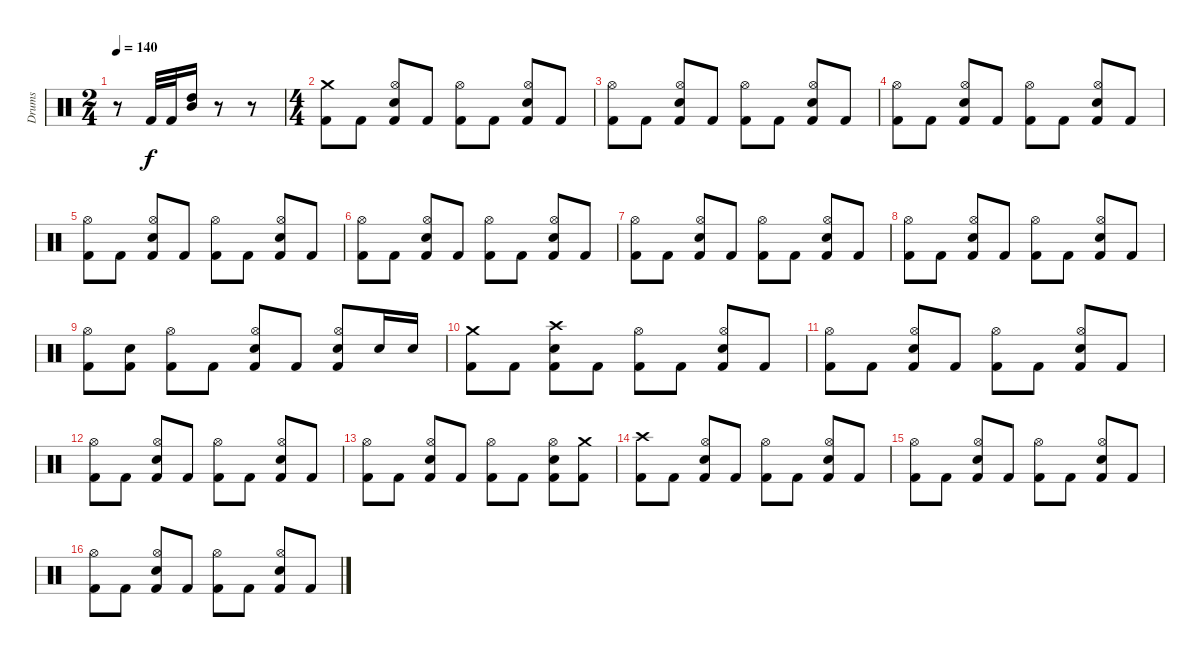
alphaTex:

\track ("Drums" "Drums") {instrument percussion}
\staff {score}
\articulation defaults
\ts (2 4)
\tempo 140
\clef neutral
\ks c
r.8{dy f} "Kick (hit) 2".32 "Kick (hit) 2".32 ("High Tom (hit)" "Mid Tom (hit)").16 r.8 r.8 |
\ts (4 4)
("Crash medium (hit)" "Kick (hit) 2").8 "Kick (hit) 2".8 ("Hi-Hat (open)" "Electric Snare (hit)" "Kick (hit) 2").8 "Kick (hit) 2".8 ("Hi-Hat (open)" "Kick (hit) 2").8 "Kick (hit) 2".8 ("Hi-Hat (open)" "Electric Snare (hit)" "Kick (hit) 2").8 "Kick (hit) 2".8 |
("Hi-Hat (open)" "Kick (hit) 2").8 "Kick (hit) 2".8 ("Hi-Hat (open)" "Electric Snare (hit)" "Kick (hit) 2").8 "Kick (hit) 2".8 ("Hi-Hat (open)" "Kick (hit) 2").8 "Kick (hit) 2".8 ("Hi-Hat (open)" "Electric Snare (hit)" "Kick (hit) 2").8 "Kick (hit) 2".8 |
("Hi-Hat (open)" "Kick (hit) 2").8 "Kick (hit) 2".8 ("Hi-Hat (open)" "Electric Snare (hit)" "Kick (hit) 2").8 "Kick (hit) 2".8 ("Hi-Hat (open)" "Kick (hit) 2").8 "Kick (hit) 2".8 ("Hi-Hat (open)" "Electric Snare (hit)" "Kick (hit) 2").8 "Kick (hit) 2".8 |
("Hi-Hat (open)" "Kick (hit) 2").8 "Kick (hit) 2".8 ("Hi-Hat (open)" "Electric Snare (hit)" "Kick (hit) 2").8 "Kick (hit) 2".8 ("Hi-Hat (open)" "Kick (hit) 2").8 "Kick (hit) 2".8 ("Hi-Hat (open)" "Electric Snare (hit)" "Kick (hit) 2").8 "Kick (hit) 2".8 |
("Hi-Hat (open)" "Kick (hit) 2").8 "Kick (hit) 2".8 ("Hi-Hat (open)" "Electric Snare (hit)" "Kick (hit) 2").8 "Kick (hit) 2".8 ("Hi-Hat (open)" "Kick (hit) 2").8 "Kick (hit) 2".8 ("Hi-Hat (open)" "Electric Snare (hit)" "Kick (hit) 2").8 "Kick (hit) 2".8 |
("Hi-Hat (open)" "Kick (hit) 2").8 "Kick (hit) 2".8 ("Hi-Hat (open)" "Electric Snare (hit)" "Kick (hit) 2").8 "Kick (hit) 2".8 ("Hi-Hat (open)" "Kick (hit) 2").8 "Kick (hit) 2".8 ("Hi-Hat (open)" "Electric Snare (hit)" "Kick (hit) 2").8 "Kick (hit) 2".8 |
("Hi-Hat (open)" "Kick (hit) 2").8 "Kick (hit) 2".8 ("Hi-Hat (open)" "Electric Snare (hit)" "Kick (hit) 2").8 "Kick (hit) 2".8 ("Hi-Hat (open)" "Kick (hit) 2").8 "Kick (hit) 2".8 ("Hi-Hat (open)" "Electric Snare (hit)" "Kick (hit) 2").8 "Kick (hit) 2".8 |
("Hi-Hat (open)" "Kick (hit) 2").8 ("Electric Snare (hit)" "Kick (hit) 2").8 ("Hi-Hat (open)" "Kick (hit) 2").8 "Kick (hit) 2".8 ("Hi-Hat (open)" "Electric Snare (hit)" "Kick (hit) 2").8 "Kick (hit) 2".8 ("Hi-Hat (open)" "Electric Snare (hit)" "Kick (hit) 2").8 "Electric Snare (hit)".16 "Electric Snare (hit)".16 |
("Crash medium (hit)" "Kick (hit) 2").8 "Kick (hit) 2".8 ("Crash high (hit)" "Electric Snare (hit)" "Kick (hit) 2").8 "Kick (hit) 2".8 ("Hi-Hat (open)" "Kick (hit) 2").8 "Kick (hit) 2".8 ("Hi-Hat (open)" "Electric Snare (hit)" "Kick (hit) 2").8 "Kick (hit) 2".8 |
("Hi-Hat (open)" "Kick (hit) 2").8 "Kick (hit) 2".8 ("Hi-Hat (open)" "Electric Snare (hit)" "Kick (hit) 2").8 "Kick (hit) 2".8 ("Hi-Hat (open)" "Kick (hit) 2").8 "Kick (hit) 2".8 ("Hi-Hat (open)" "Electric Snare (hit)" "Kick (hit) 2").8 "Kick (hit) 2".8 |
("Hi-Hat (open)" "Kick (hit) 2").8 "Kick (hit) 2".8 ("Hi-Hat (open)" "Electric Snare (hit)" "Kick (hit) 2").8 "Kick (hit) 2".8 ("Hi-Hat (open)" "Kick (hit) 2").8 "Kick (hit) 2".8 ("Hi-Hat (open)" "Electric Snare (hit)" "Kick (hit) 2").8 "Kick (hit) 2".8 |
("Hi-Hat (open)" "Kick (hit) 2").8 "Kick (hit) 2".8 ("Hi-Hat (open)" "Electric Snare (hit)" "Kick (hit) 2").8 "Kick (hit) 2".8 ("Hi-Hat (open)" "Kick (hit) 2").8 "Kick (hit) 2".8 ("Hi-Hat (open)" "Electric Snare (hit)" "Kick (hit) 2").8 ("Crash medium (hit)" "Kick (hit) 2").8 |
("Crash high (hit)" "Kick (hit) 2").8 "Kick (hit) 2".8 ("Hi-Hat (open)" "Electric Snare (hit)" "Kick (hit) 2").8 "Kick (hit) 2".8 ("Hi-Hat (open)" "Kick (hit) 2").8 "Kick (hit) 2".8 ("Hi-Hat (open)" "Electric Snare (hit)" "Kick (hit) 2").8 "Kick (hit) 2".8 |
("Hi-Hat (open)" "Kick (hit) 2").8 "Kick (hit) 2".8 ("Hi-Hat (open)" "Electric Snare (hit)" "Kick (hit) 2").8 "Kick (hit) 2".8 ("Hi-Hat (open)" "Kick (hit) 2").8 "Kick (hit) 2".8 ("Hi-Hat (open)" "Electric Snare (hit)" "Kick (hit) 2").8 "Kick (hit) 2".8 |
("Hi-Hat (open)" "Kick (hit) 2").8 "Kick (hit) 2".8 ("Hi-Hat (open)" "Electric Snare (hit)" "Kick (hit) 2").8 "Kick (hit) 2".8 ("Hi-Hat (open)" "Kick (hit) 2").8 "Kick (hit) 2".8 ("Hi-Hat (open)" "Electric Snare (hit)" "Kick (hit) 2").8 "Kick (hit) 2".8
